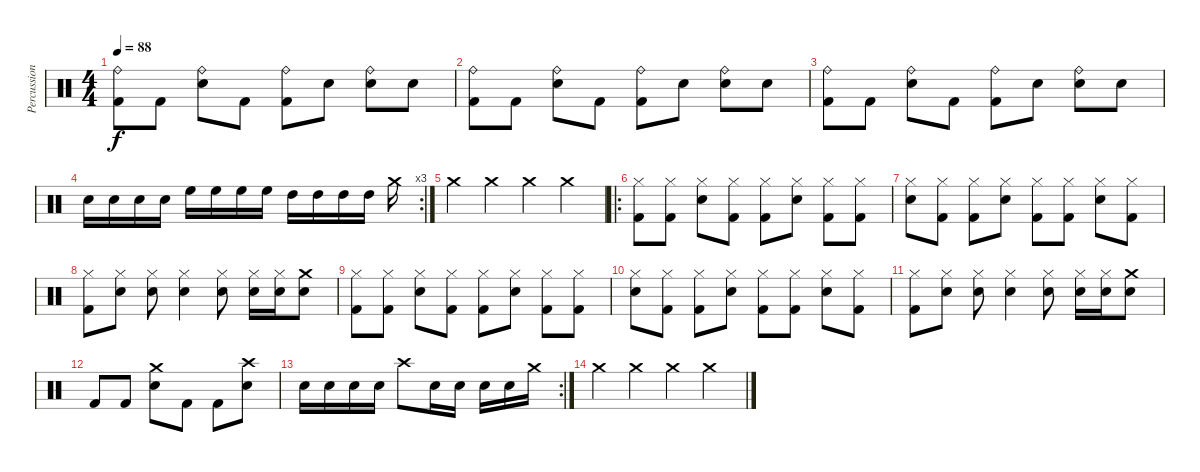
\track ("Percussion" "Percussion") {instrument percussion}
\staff {score}
\articulation defaults
\ts (4 4)
\tempo 88
\clef neutral
\ks c
("Ride (bell)" "Kick (hit) 2").8{dy f} "Kick (hit) 2".8 ("Ride (bell)" "Snare (hit) 2").8 "Kick (hit) 2".8 ("Ride (bell)" "Kick (hit) 2").8 "Snare (hit) 2".8 ("Ride (bell)" "Snare (hit) 2").8 "Snare (hit) 2".8 |
("Ride (bell)" "Kick (hit) 2").8 "Kick (hit) 2".8 ("Ride (bell)" "Snare (hit) 2").8 "Kick (hit) 2".8 ("Ride (bell)" "Kick (hit) 2").8 "Snare (hit) 2".8 ("Ride (bell)" "Snare (hit) 2").8 "Snare (hit) 2".8 |
("Ride (bell)" "Kick (hit) 2").8 "Kick (hit) 2".8 ("Ride (bell)" "Snare (hit) 2").8 "Kick (hit) 2".8 ("Ride (bell)" "Kick (hit) 2").8 "Snare (hit) 2".8 ("Ride (bell)" "Snare (hit) 2").8 "Snare (hit) 2".8 |
\rc 3 "Snare (hit) 2".16 "Snare (hit) 2".16 "Snare (hit) 2".16 "Snare (hit) 2".16 "High Floor Tom (hit)".16 "High Floor Tom (hit)".16 "High Floor Tom (hit)".16 "High Floor Tom (hit)".16 "High Tom (hit)".16 "High Tom (hit)".16 "High Tom (hit)".16 "High Tom (hit)".16 "Crash medium (hit)".16
|
"Crash medium (hit)".4 "Crash medium (hit)".4 "Crash medium (hit)".4 "Crash medium (hit)".4 |
\ro
("Hi-Hat (closed)" "Kick (hit) 2").8 ("Hi-Hat (closed)" "Kick (hit) 2").8 ("Hi-Hat (closed)" "Snare (hit) 2").8 ("Hi-Hat (closed)" "Kick (hit) 2").8 ("Hi-Hat (closed)" "Kick (hit) 2").8 ("Hi-Hat (closed)" "Snare (hit) 2").8 ("Hi-Hat (closed)" "Kick (hit) 2").8 ("Hi-Hat (closed)" "Kick (hit) 2").8 |
("Hi-Hat (closed)" "Snare (hit) 2").8 ("Hi-Hat (closed)" "Kick (hit) 2").8 ("Hi-Hat (closed)" "Kick (hit) 2").8 ("Hi-Hat (closed)" "Snare (hit) 2").8 ("Hi-Hat (closed)" "Kick (hit) 2").8 ("Hi-Hat (closed)" "Kick (hit) 2").8 ("Hi-Hat (closed)" "Snare (hit) 2").8 ("Hi-Hat (closed)" "Kick (hit) 2").8 |
("Hi-Hat (closed)" "Kick (hit) 2").8 ("Hi-Hat (closed)" "Snare (hit) 2").8 ("Hi-Hat (closed)" "Snare (hit) 2").8 ("Hi-Hat (closed)" "Snare (hit) 2").4 ("Hi-Hat (closed)" "Snare (hit) 2").8 ("Hi-Hat (closed)" "Snare (hit) 2").16 ("Hi-Hat (closed)" "Snare (hit) 2").16 ("Crash medium (hit)" "Snare (hit) 2").8 |
("Hi-Hat (closed)" "Kick (hit) 2").8 ("Hi-Hat (closed)" "Kick (hit) 2").8 ("Hi-Hat (closed)" "Snare (hit) 2").8 ("Hi-Hat (closed)" "Kick (hit) 2").8 ("Hi-Hat (closed)" "Kick (hit) 2").8 ("Hi-Hat (closed)" "Snare (hit) 2").8 ("Hi-Hat (closed)" "Kick (hit) 2").8 ("Hi-Hat (closed)" "Kick (hit) 2").8 |
("Hi-Hat (closed)" "Snare (hit) 2").8 ("Hi-Hat (closed)" "Kick (hit) 2").8 ("Hi-Hat (closed)" "Kick (hit) 2").8 ("Hi-Hat (closed)" "Snare (hit) 2").8 ("Hi-Hat (closed)" "Kick (hit) 2").8 ("Hi-Hat (closed)" "Kick (hit) 2").8 ("Hi-Hat (closed)" "Snare (hit) 2").8 ("Hi-Hat (closed)" "Kick (hit) 2").8 |
("Hi-Hat (closed)" "Kick (hit) 2").8 ("Hi-Hat (closed)" "Snare (hit) 2").8 ("Hi-Hat (closed)" "Snare (hit) 2").8 ("Hi-Hat (closed)" "Snare (hit) 2").4 ("Hi-Hat (closed)" "Snare (hit) 2").8 ("Hi-Hat (closed)" "Snare (hit) 2").16 ("Hi-Hat (closed)" "Snare (hit) 2").16 ("Crash medium (hit)" "Snare (hit) 2").8 |
"Kick (hit) 2".8 "Kick (hit) 2".8 ("Snare (hit) 2" "Crash medium (hit)").8 "Kick (hit) 2".8 "Kick (hit) 2".8 ("Snare (hit) 2" "Crash high (hit)").8 |
\rc 2 "Snare (hit) 2".16 "Snare (hit) 2".16 "Snare (hit) 2".16 "Snare (hit) 2".16 "Crash high (hit)".8 "Snare (hit) 2".16 "Snare (hit) 2".16 "Snare (hit) 2".16 "Snare (hit) 2".16 "Crash medium (hit)".16
|
"Crash medium (hit)".4 "Crash medium (hit)".4 "Crash medium (hit)".4 "Crash medium (hit)".4
